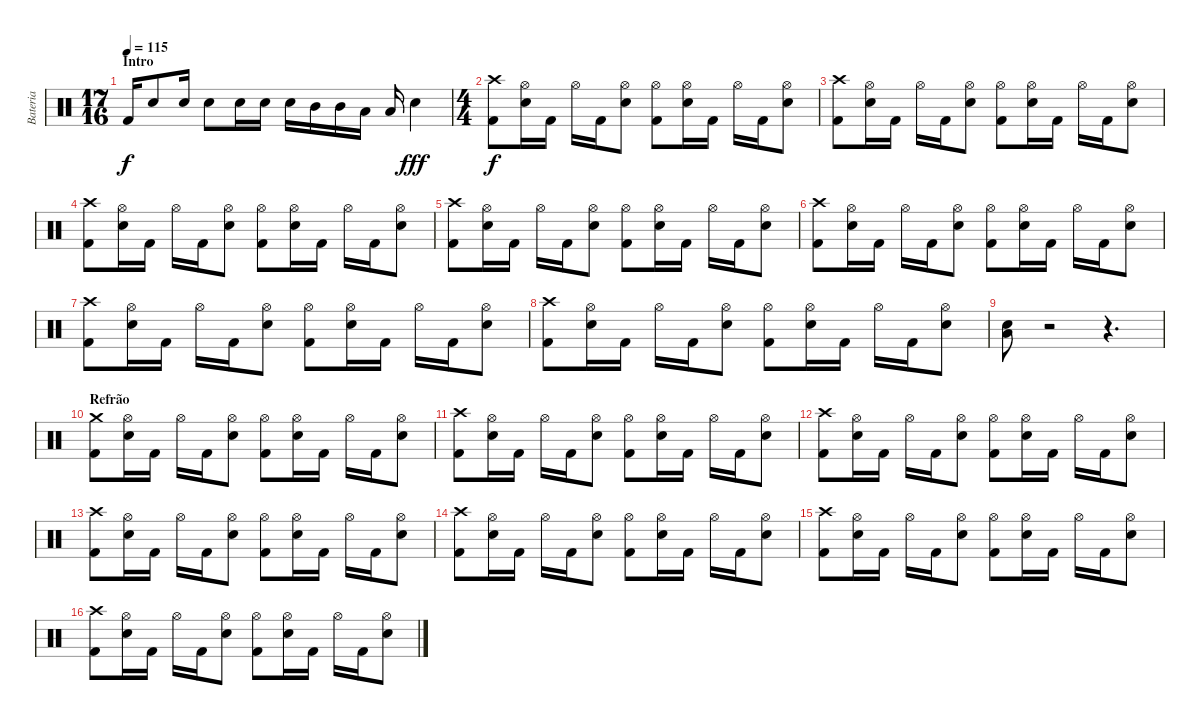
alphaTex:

\track ("Bateria" "Bateria") {instrument percussion}
\staff {score}
\articulation defaults
\ts (17 16)
\section ("" "Intro")
\tempo 115
\clef neutral
\ks c "Kick (hit) 2".16{dy f} "Electric Snare (hit)".8 "Electric Snare (hit)".16 "Electric Snare (hit)".8 "Electric Snare (hit)".16 "Electric Snare (hit)".16 "Electric Snare (hit)".16 "Mid Tom (hit)".16 "Mid Tom (hit)".16 "Low Tom (hit)".16 "Low Tom (hit)".16 "Electric Snare (hit)".4{dy fff}
|
\ts (4 4)
("Crash high (hit)" "Kick (hit) 2").8{dy f} ("Hi-Hat (open)" "Electric Snare (hit)").16 "Kick (hit) 2".16 "Hi-Hat (open)".16 "Kick (hit) 2".16 ("Hi-Hat (open)" "Electric Snare (hit)").8 ("Hi-Hat (open)" "Kick (hit) 2").8 ("Hi-Hat (open)" "Electric Snare (hit)").16 "Kick (hit) 2".16 "Hi-Hat (open)".16 "Kick (hit) 2".16 ("Hi-Hat (open)" "Electric Snare (hit)").8 |
("Crash high (hit)" "Kick (hit) 2").8 ("Hi-Hat (open)" "Electric Snare (hit)").16 "Kick (hit) 2".16 "Hi-Hat (open)".16 "Kick (hit) 2".16 ("Hi-Hat (open)" "Electric Snare (hit)").8 ("Hi-Hat (open)" "Kick (hit) 2").8 ("Hi-Hat (open)" "Electric Snare (hit)").16 "Kick (hit) 2".16 "Hi-Hat (open)".16 "Kick (hit) 2".16 ("Hi-Hat (open)" "Electric Snare (hit)").8 |
("Crash high (hit)" "Kick (hit) 2").8 ("Hi-Hat (open)" "Electric Snare (hit)").16 "Kick (hit) 2".16 "Hi-Hat (open)".16 "Kick (hit) 2".16 ("Hi-Hat (open)" "Electric Snare (hit)").8 ("Hi-Hat (open)" "Kick (hit) 2").8 ("Hi-Hat (open)" "Electric Snare (hit)").16 "Kick (hit) 2".16 "Hi-Hat (open)".16 "Kick (hit) 2".16 ("Hi-Hat (open)" "Electric Snare (hit)").8 |
("Crash high (hit)" "Kick (hit) 2").8 ("Hi-Hat (open)" "Electric Snare (hit)").16 "Kick (hit) 2".16 "Hi-Hat (open)".16 "Kick (hit) 2".16 ("Hi-Hat (open)" "Electric Snare (hit)").8 ("Hi-Hat (open)" "Kick (hit) 2").8 ("Hi-Hat (open)" "Electric Snare (hit)").16 "Kick (hit) 2".16 "Hi-Hat (open)".16 "Kick (hit) 2".16 ("Hi-Hat (open)" "Electric Snare (hit)").8 |
("Crash high (hit)" "Kick (hit) 2").8 ("Hi-Hat (open)" "Electric Snare (hit)").16 "Kick (hit) 2".16 "Hi-Hat (open)".16 "Kick (hit) 2".16 ("Hi-Hat (open)" "Electric Snare (hit)").8 ("Hi-Hat (open)" "Kick (hit) 2").8 ("Hi-Hat (open)" "Electric Snare (hit)").16 "Kick (hit) 2".16 "Hi-Hat (open)".16 "Kick (hit) 2".16 ("Hi-Hat (open)" "Electric Snare (hit)").8 |
("Crash high (hit)" "Kick (hit) 2").8 ("Hi-Hat (open)" "Electric Snare (hit)").16 "Kick (hit) 2".16 "Hi-Hat (open)".16 "Kick (hit) 2".16 ("Hi-Hat (open)" "Electric Snare (hit)").8 ("Hi-Hat (open)" "Kick (hit) 2").8 ("Hi-Hat (open)" "Electric Snare (hit)").16 "Kick (hit) 2".16 "Hi-Hat (open)".16 "Kick (hit) 2".16 ("Hi-Hat (open)" "Electric Snare (hit)").8 |
("Crash high (hit)" "Kick (hit) 2").8 ("Hi-Hat (open)" "Electric Snare (hit)").16 "Kick (hit) 2".16 "Hi-Hat (open)".16 "Kick (hit) 2".16 ("Hi-Hat (open)" "Electric Snare (hit)").8 ("Hi-Hat (open)" "Kick (hit) 2").8 ("Hi-Hat (open)" "Electric Snare (hit)").16 "Kick (hit) 2".16 "Hi-Hat (open)".16 "Kick (hit) 2".16 ("Hi-Hat (open)" "Electric Snare (hit)").8 |
("Low Tom (hit)" "Electric Snare (hit)").8 r.2 r.4{d} |
\section ("" "Refrão")
("Crash medium (hit)" "Kick (hit) 2").8 ("Hi-Hat (open)" "Electric Snare (hit)").16 "Kick (hit) 2".16 "Hi-Hat (open)".16 "Kick (hit) 2".16 ("Hi-Hat (open)" "Electric Snare (hit)").8 ("Hi-Hat (open)" "Kick (hit) 2").8 ("Hi-Hat (open)" "Electric Snare (hit)").16 "Kick (hit) 2".16 "Hi-Hat (open)".16 "Kick (hit) 2".16 ("Hi-Hat (open)" "Electric Snare (hit)").8 |
("Crash high (hit)" "Kick (hit) 2").8 ("Hi-Hat (open)" "Electric Snare (hit)").16 "Kick (hit) 2".16 "Hi-Hat (open)".16 "Kick (hit) 2".16 ("Hi-Hat (open)" "Electric Snare (hit)").8 ("Hi-Hat (open)" "Kick (hit) 2").8 ("Hi-Hat (open)" "Electric Snare (hit)").16 "Kick (hit) 2".16 "Hi-Hat (open)".16 "Kick (hit) 2".16 ("Hi-Hat (open)" "Electric Snare (hit)").8 |
("Crash high (hit)" "Kick (hit) 2").8 ("Hi-Hat (open)" "Electric Snare (hit)").16 "Kick (hit) 2".16 "Hi-Hat (open)".16 "Kick (hit) 2".16 ("Hi-Hat (open)" "Electric Snare (hit)").8 ("Hi-Hat (open)" "Kick (hit) 2").8 ("Hi-Hat (open)" "Electric Snare (hit)").16 "Kick (hit) 2".16 "Hi-Hat (open)".16 "Kick (hit) 2".16 ("Hi-Hat (open)" "Electric Snare (hit)").8 |
("Crash high (hit)" "Kick (hit) 2").8 ("Hi-Hat (open)" "Electric Snare (hit)").16 "Kick (hit) 2".16 "Hi-Hat (open)".16 "Kick (hit) 2".16 ("Hi-Hat (open)" "Electric Snare (hit)").8 ("Hi-Hat (open)" "Kick (hit) 2").8 ("Hi-Hat (open)" "Electric Snare (hit)").16 "Kick (hit) 2".16 "Hi-Hat (open)".16 "Kick (hit) 2".16 ("Hi-Hat (open)" "Electric Snare (hit)").8 |
("Crash high (hit)" "Kick (hit) 2").8 ("Hi-Hat (open)" "Electric Snare (hit)").16 "Kick (hit) 2".16 "Hi-Hat (open)".16 "Kick (hit) 2".16 ("Hi-Hat (open)" "Electric Snare (hit)").8 ("Hi-Hat (open)" "Kick (hit) 2").8 ("Hi-Hat (open)" "Electric Snare (hit)").16 "Kick (hit) 2".16 "Hi-Hat (open)".16 "Kick (hit) 2".16 ("Hi-Hat (open)" "Electric Snare (hit)").8 |
("Crash high (hit)" "Kick (hit) 2").8 ("Hi-Hat (open)" "Electric Snare (hit)").16 "Kick (hit) 2".16 "Hi-Hat (open)".16 "Kick (hit) 2".16 ("Hi-Hat (open)" "Electric Snare (hit)").8 ("Hi-Hat (open)" "Kick (hit) 2").8 ("Hi-Hat (open)" "Electric Snare (hit)").16 "Kick (hit) 2".16 "Hi-Hat (open)".16 "Kick (hit) 2".16 ("Hi-Hat (open)" "Electric Snare (hit)").8 |
("Crash high (hit)" "Kick (hit) 2").8 ("Hi-Hat (open)" "Electric Snare (hit)").16 "Kick (hit) 2".16 "Hi-Hat (open)".16 "Kick (hit) 2".16 ("Hi-Hat (open)" "Electric Snare (hit)").8 ("Hi-Hat (open)" "Kick (hit) 2").8 ("Hi-Hat (open)" "Electric Snare (hit)").16 "Kick (hit) 2".16 "Hi-Hat (open)".16 "Kick (hit) 2".16 ("Hi-Hat (open)" "Electric Snare (hit)").8
